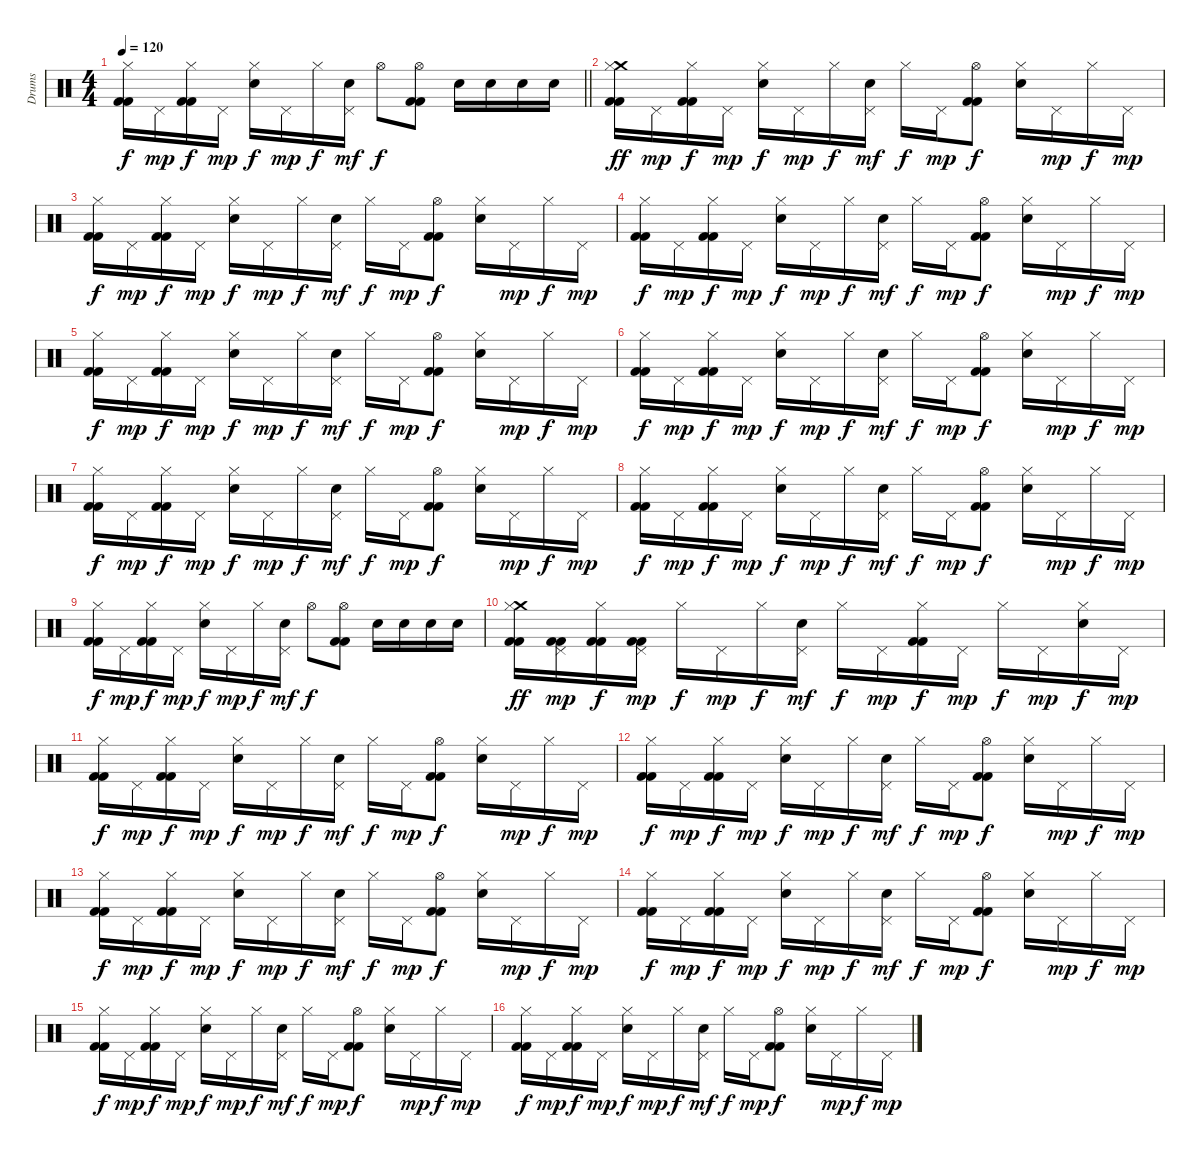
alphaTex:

\track ("Drums" "Drums") {instrument percussion}
\staff {score}
\articulation defaults
\ts (4 4)
\tempo 120
\clef neutral
\barLineRight lightlight
\ks c
("Hi-Hat (closed)" "Kick (hit) 2" "Kick (hit) 2").16{dy f} "Pedal Hi-Hat (hit)".16{dy mp} ("Hi-Hat (closed)" "Kick (hit) 2" "Kick (hit) 2").16{dy f} "Pedal Hi-Hat (hit)".16{dy mp} ("Hi-Hat (closed)" "Electric Snare (hit)").16{dy f} "Pedal Hi-Hat (hit)".16{dy mp} "Hi-Hat (closed)".16{dy f} ("Pedal Hi-Hat (hit)" "Electric Snare (hit)").16{dy mf} "Hi-Hat (open)".8{dy f} ("Hi-Hat (open)" "Kick (hit) 2" "Kick (hit) 2").8 "Electric Snare (hit)".16 "Electric Snare (hit)".16 "Electric Snare (hit)".16 "Electric Snare (hit)".16 |
("Crash medium (hit)" "Hi-Hat (closed)" "Kick (hit) 2" "Kick (hit) 2").16{dy ff} "Pedal Hi-Hat (hit)".16{dy mp} ("Hi-Hat (closed)" "Kick (hit) 2" "Kick (hit) 2").16{dy f} "Pedal Hi-Hat (hit)".16{dy mp} ("Hi-Hat (closed)" "Electric Snare (hit)").16{dy f} "Pedal Hi-Hat (hit)".16{dy mp} "Hi-Hat (closed)".16{dy f} ("Pedal Hi-Hat (hit)" "Electric Snare (hit)").16{dy mf} "Hi-Hat (closed)".16{dy f} "Pedal Hi-Hat (hit)".16{dy mp} ("Hi-Hat (open)" "Kick (hit) 2" "Kick (hit) 2").8{dy f} ("Hi-Hat (closed)" "Electric Snare (hit)").16 "Pedal Hi-Hat (hit)".16{dy mp} "Hi-Hat (closed)".16{dy f} "Pedal Hi-Hat (hit)".16{dy mp} |
("Hi-Hat (closed)" "Kick (hit) 2" "Kick (hit) 2").16{dy f} "Pedal Hi-Hat (hit)".16{dy mp} ("Hi-Hat (closed)" "Kick (hit) 2" "Kick (hit) 2").16{dy f} "Pedal Hi-Hat (hit)".16{dy mp} ("Hi-Hat (closed)" "Electric Snare (hit)").16{dy f} "Pedal Hi-Hat (hit)".16{dy mp} "Hi-Hat (closed)".16{dy f} ("Pedal Hi-Hat (hit)" "Electric Snare (hit)").16{dy mf} "Hi-Hat (closed)".16{dy f} "Pedal Hi-Hat (hit)".16{dy mp} ("Hi-Hat (open)" "Kick (hit) 2" "Kick (hit) 2").8{dy f} ("Hi-Hat (closed)" "Electric Snare (hit)").16 "Pedal Hi-Hat (hit)".16{dy mp} "Hi-Hat (closed)".16{dy f} "Pedal Hi-Hat (hit)".16{dy mp} |
("Hi-Hat (closed)" "Kick (hit) 2" "Kick (hit) 2").16{dy f} "Pedal Hi-Hat (hit)".16{dy mp} ("Hi-Hat (closed)" "Kick (hit) 2" "Kick (hit) 2").16{dy f} "Pedal Hi-Hat (hit)".16{dy mp} ("Hi-Hat (closed)" "Electric Snare (hit)").16{dy f} "Pedal Hi-Hat (hit)".16{dy mp} "Hi-Hat (closed)".16{dy f} ("Pedal Hi-Hat (hit)" "Electric Snare (hit)").16{dy mf} "Hi-Hat (closed)".16{dy f} "Pedal Hi-Hat (hit)".16{dy mp} ("Hi-Hat (open)" "Kick (hit) 2" "Kick (hit) 2").8{dy f} ("Hi-Hat (closed)" "Electric Snare (hit)").16 "Pedal Hi-Hat (hit)".16{dy mp} "Hi-Hat (closed)".16{dy f} "Pedal Hi-Hat (hit)".16{dy mp} |
("Hi-Hat (closed)" "Kick (hit) 2" "Kick (hit) 2").16{dy f} "Pedal Hi-Hat (hit)".16{dy mp} ("Hi-Hat (closed)" "Kick (hit) 2" "Kick (hit) 2").16{dy f} "Pedal Hi-Hat (hit)".16{dy mp} ("Hi-Hat (closed)" "Electric Snare (hit)").16{dy f} "Pedal Hi-Hat (hit)".16{dy mp} "Hi-Hat (closed)".16{dy f} ("Pedal Hi-Hat (hit)" "Electric Snare (hit)").16{dy mf} "Hi-Hat (closed)".16{dy f} "Pedal Hi-Hat (hit)".16{dy mp} ("Hi-Hat (open)" "Kick (hit) 2" "Kick (hit) 2").8{dy f} ("Hi-Hat (closed)" "Electric Snare (hit)").16 "Pedal Hi-Hat (hit)".16{dy mp} "Hi-Hat (closed)".16{dy f} "Pedal Hi-Hat (hit)".16{dy mp} |
("Hi-Hat (closed)" "Kick (hit) 2" "Kick (hit) 2").16{dy f} "Pedal Hi-Hat (hit)".16{dy mp} ("Hi-Hat (closed)" "Kick (hit) 2" "Kick (hit) 2").16{dy f} "Pedal Hi-Hat (hit)".16{dy mp} ("Hi-Hat (closed)" "Electric Snare (hit)").16{dy f} "Pedal Hi-Hat (hit)".16{dy mp} "Hi-Hat (closed)".16{dy f} ("Pedal Hi-Hat (hit)" "Electric Snare (hit)").16{dy mf} "Hi-Hat (closed)".16{dy f} "Pedal Hi-Hat (hit)".16{dy mp} ("Hi-Hat (open)" "Kick (hit) 2" "Kick (hit) 2").8{dy f} ("Hi-Hat (closed)" "Electric Snare (hit)").16 "Pedal Hi-Hat (hit)".16{dy mp} "Hi-Hat (closed)".16{dy f} "Pedal Hi-Hat (hit)".16{dy mp} |
("Hi-Hat (closed)" "Kick (hit) 2" "Kick (hit) 2").16{dy f} "Pedal Hi-Hat (hit)".16{dy mp} ("Hi-Hat (closed)" "Kick (hit) 2" "Kick (hit) 2").16{dy f} "Pedal Hi-Hat (hit)".16{dy mp} ("Hi-Hat (closed)" "Electric Snare (hit)").16{dy f} "Pedal Hi-Hat (hit)".16{dy mp} "Hi-Hat (closed)".16{dy f} ("Pedal Hi-Hat (hit)" "Electric Snare (hit)").16{dy mf} "Hi-Hat (closed)".16{dy f} "Pedal Hi-Hat (hit)".16{dy mp} ("Hi-Hat (open)" "Kick (hit) 2" "Kick (hit) 2").8{dy f} ("Hi-Hat (closed)" "Electric Snare (hit)").16 "Pedal Hi-Hat (hit)".16{dy mp} "Hi-Hat (closed)".16{dy f} "Pedal Hi-Hat (hit)".16{dy mp} |
("Hi-Hat (closed)" "Kick (hit) 2" "Kick (hit) 2").16{dy f} "Pedal Hi-Hat (hit)".16{dy mp} ("Hi-Hat (closed)" "Kick (hit) 2" "Kick (hit) 2").16{dy f} "Pedal Hi-Hat (hit)".16{dy mp} ("Hi-Hat (closed)" "Electric Snare (hit)").16{dy f} "Pedal Hi-Hat (hit)".16{dy mp} "Hi-Hat (closed)".16{dy f} ("Pedal Hi-Hat (hit)" "Electric Snare (hit)").16{dy mf} "Hi-Hat (closed)".16{dy f} "Pedal Hi-Hat (hit)".16{dy mp} ("Hi-Hat (open)" "Kick (hit) 2" "Kick (hit) 2").8{dy f} ("Hi-Hat (closed)" "Electric Snare (hit)").16 "Pedal Hi-Hat (hit)".16{dy mp} "Hi-Hat (closed)".16{dy f} "Pedal Hi-Hat (hit)".16{dy mp} |
("Hi-Hat (closed)" "Kick (hit) 2" "Kick (hit) 2").16{dy f} "Pedal Hi-Hat (hit)".16{dy mp} ("Hi-Hat (closed)" "Kick (hit) 2" "Kick (hit) 2").16{dy f} "Pedal Hi-Hat (hit)".16{dy mp} ("Hi-Hat (closed)" "Electric Snare (hit)").16{dy f} "Pedal Hi-Hat (hit)".16{dy mp} "Hi-Hat (closed)".16{dy f} ("Pedal Hi-Hat (hit)" "Electric Snare (hit)").16{dy mf} "Hi-Hat (open)".8{dy f} ("Hi-Hat (open)" "Kick (hit) 2" "Kick (hit) 2").8 "Electric Snare (hit)".16 "Electric Snare (hit)".16 "Electric Snare (hit)".16 "Electric Snare (hit)".16 |
("Crash medium (hit)" "Hi-Hat (closed)" "Kick (hit) 2" "Kick (hit) 2").16{dy ff} ("Pedal Hi-Hat (hit)" "Kick (hit) 2" "Kick (hit) 2").16{dy mp} ("Hi-Hat (closed)" "Kick (hit) 2" "Kick (hit) 2").16{dy f} ("Pedal Hi-Hat (hit)" "Kick (hit) 2" "Kick (hit) 2").16{dy mp} "Hi-Hat (closed)".16{dy f} "Pedal Hi-Hat (hit)".16{dy mp} "Hi-Hat (closed)".16{dy f} ("Pedal Hi-Hat (hit)" "Electric Snare (hit)").16{dy mf} "Hi-Hat (closed)".16{dy f} "Pedal Hi-Hat (hit)".16{dy mp} ("Hi-Hat (closed)" "Kick (hit) 2" "Kick (hit) 2").16{dy f} "Pedal Hi-Hat (hit)".16{dy mp} "Hi-Hat (closed)".16{dy f} "Pedal Hi-Hat (hit)".16{dy mp} ("Hi-Hat (closed)" "Electric Snare (hit)").16{dy f} "Pedal Hi-Hat (hit)".16{dy mp} |
("Hi-Hat (closed)" "Kick (hit) 2" "Kick (hit) 2").16{dy f} "Pedal Hi-Hat (hit)".16{dy mp} ("Hi-Hat (closed)" "Kick (hit) 2" "Kick (hit) 2").16{dy f} "Pedal Hi-Hat (hit)".16{dy mp} ("Hi-Hat (closed)" "Electric Snare (hit)").16{dy f} "Pedal Hi-Hat (hit)".16{dy mp} "Hi-Hat (closed)".16{dy f} ("Pedal Hi-Hat (hit)" "Electric Snare (hit)").16{dy mf} "Hi-Hat (closed)".16{dy f} "Pedal Hi-Hat (hit)".16{dy mp} ("Hi-Hat (open)" "Kick (hit) 2" "Kick (hit) 2").8{dy f} ("Hi-Hat (closed)" "Electric Snare (hit)").16 "Pedal Hi-Hat (hit)".16{dy mp} "Hi-Hat (closed)".16{dy f} "Pedal Hi-Hat (hit)".16{dy mp} |
("Hi-Hat (closed)" "Kick (hit) 2" "Kick (hit) 2").16{dy f} "Pedal Hi-Hat (hit)".16{dy mp} ("Hi-Hat (closed)" "Kick (hit) 2" "Kick (hit) 2").16{dy f} "Pedal Hi-Hat (hit)".16{dy mp} ("Hi-Hat (closed)" "Electric Snare (hit)").16{dy f} "Pedal Hi-Hat (hit)".16{dy mp} "Hi-Hat (closed)".16{dy f} ("Pedal Hi-Hat (hit)" "Electric Snare (hit)").16{dy mf} "Hi-Hat (closed)".16{dy f} "Pedal Hi-Hat (hit)".16{dy mp} ("Hi-Hat (open)" "Kick (hit) 2" "Kick (hit) 2").8{dy f} ("Hi-Hat (closed)" "Electric Snare (hit)").16 "Pedal Hi-Hat (hit)".16{dy mp} "Hi-Hat (closed)".16{dy f} "Pedal Hi-Hat (hit)".16{dy mp} |
("Hi-Hat (closed)" "Kick (hit) 2" "Kick (hit) 2").16{dy f} "Pedal Hi-Hat (hit)".16{dy mp} ("Hi-Hat (closed)" "Kick (hit) 2" "Kick (hit) 2").16{dy f} "Pedal Hi-Hat (hit)".16{dy mp} ("Hi-Hat (closed)" "Electric Snare (hit)").16{dy f} "Pedal Hi-Hat (hit)".16{dy mp} "Hi-Hat (closed)".16{dy f} ("Pedal Hi-Hat (hit)" "Electric Snare (hit)").16{dy mf} "Hi-Hat (closed)".16{dy f} "Pedal Hi-Hat (hit)".16{dy mp} ("Hi-Hat (open)" "Kick (hit) 2" "Kick (hit) 2").8{dy f} ("Hi-Hat (closed)" "Electric Snare (hit)").16 "Pedal Hi-Hat (hit)".16{dy mp} "Hi-Hat (closed)".16{dy f} "Pedal Hi-Hat (hit)".16{dy mp} |
("Hi-Hat (closed)" "Kick (hit) 2" "Kick (hit) 2").16{dy f} "Pedal Hi-Hat (hit)".16{dy mp} ("Hi-Hat (closed)" "Kick (hit) 2" "Kick (hit) 2").16{dy f} "Pedal Hi-Hat (hit)".16{dy mp} ("Hi-Hat (closed)" "Electric Snare (hit)").16{dy f} "Pedal Hi-Hat (hit)".16{dy mp} "Hi-Hat (closed)".16{dy f} ("Pedal Hi-Hat (hit)" "Electric Snare (hit)").16{dy mf} "Hi-Hat (closed)".16{dy f} "Pedal Hi-Hat (hit)".16{dy mp} ("Hi-Hat (open)" "Kick (hit) 2" "Kick (hit) 2").8{dy f} ("Hi-Hat (closed)" "Electric Snare (hit)").16 "Pedal Hi-Hat (hit)".16{dy mp} "Hi-Hat (closed)".16{dy f} "Pedal Hi-Hat (hit)".16{dy mp} |
("Hi-Hat (closed)" "Kick (hit) 2" "Kick (hit) 2").16{dy f} "Pedal Hi-Hat (hit)".16{dy mp} ("Hi-Hat (closed)" "Kick (hit) 2" "Kick (hit) 2").16{dy f} "Pedal Hi-Hat (hit)".16{dy mp} ("Hi-Hat (closed)" "Electric Snare (hit)").16{dy f} "Pedal Hi-Hat (hit)".16{dy mp} "Hi-Hat (closed)".16{dy f} ("Pedal Hi-Hat (hit)" "Electric Snare (hit)").16{dy mf} "Hi-Hat (closed)".16{dy f} "Pedal Hi-Hat (hit)".16{dy mp} ("Hi-Hat (open)" "Kick (hit) 2" "Kick (hit) 2").8{dy f} ("Hi-Hat (closed)" "Electric Snare (hit)").16 "Pedal Hi-Hat (hit)".16{dy mp} "Hi-Hat (closed)".16{dy f} "Pedal Hi-Hat (hit)".16{dy mp} |
("Hi-Hat (closed)" "Kick (hit) 2" "Kick (hit) 2").16{dy f} "Pedal Hi-Hat (hit)".16{dy mp} ("Hi-Hat (closed)" "Kick (hit) 2" "Kick (hit) 2").16{dy f} "Pedal Hi-Hat (hit)".16{dy mp} ("Hi-Hat (closed)" "Electric Snare (hit)").16{dy f} "Pedal Hi-Hat (hit)".16{dy mp} "Hi-Hat (closed)".16{dy f} ("Pedal Hi-Hat (hit)" "Electric Snare (hit)").16{dy mf} "Hi-Hat (closed)".16{dy f} "Pedal Hi-Hat (hit)".16{dy mp} ("Hi-Hat (open)" "Kick (hit) 2" "Kick (hit) 2").8{dy f} ("Hi-Hat (closed)" "Electric Snare (hit)").16 "Pedal Hi-Hat (hit)".16{dy mp} "Hi-Hat (closed)".16{dy f} "Pedal Hi-Hat (hit)".16{dy mp}
